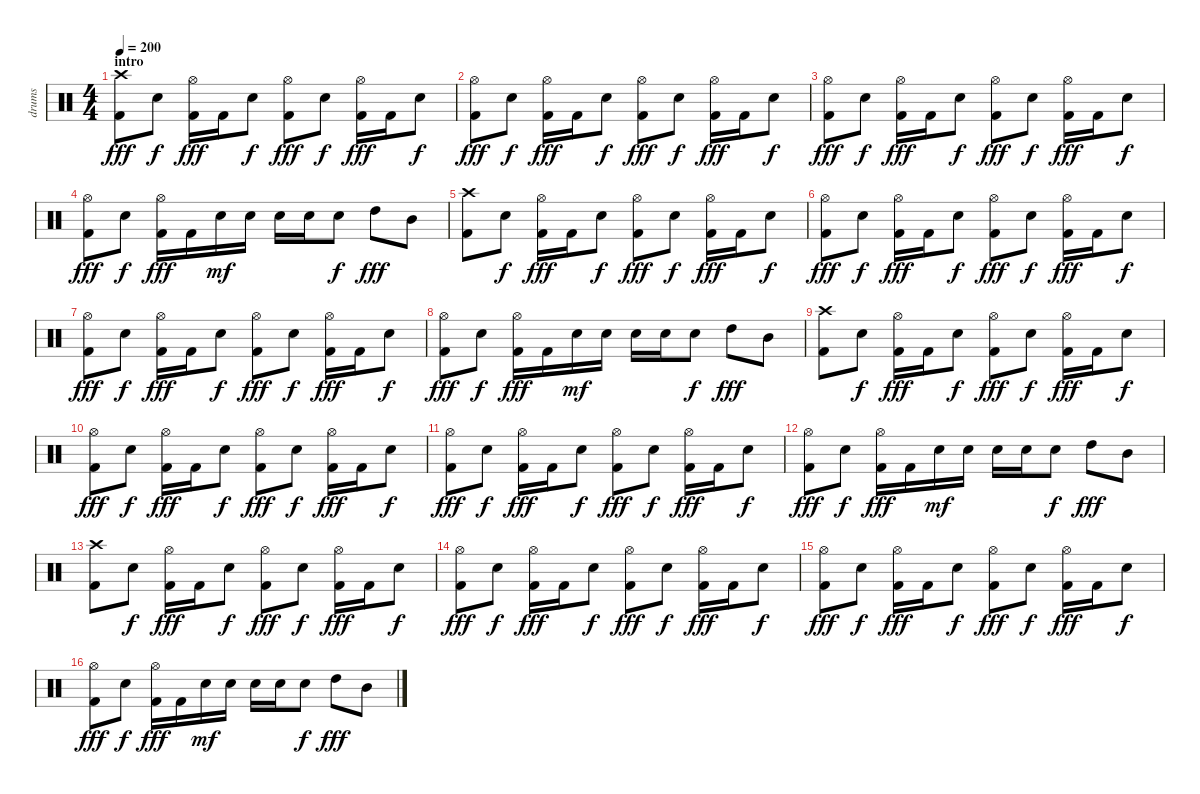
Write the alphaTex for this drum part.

\track ("drums" "drums") {instrument percussion}
\staff {score}
\articulation defaults
\ts (4 4)
\section ("" "intro")
\tempo 200
\clef neutral
\ks c
("Crash high (hit)" "Kick (hit) 2").8{dy fff} "Snare (hit) 2".8{dy f} ("Hi-Hat (open)" "Kick (hit) 2").16{dy fff} "Kick (hit) 2".16 "Snare (hit) 2".8{dy f} ("Hi-Hat (open)" "Kick (hit) 2").8{dy fff} "Snare (hit) 2".8{dy f} ("Hi-Hat (open)" "Kick (hit) 2").16{dy fff} "Kick (hit) 2".16 "Snare (hit) 2".8{dy f} |
("Hi-Hat (open)" "Kick (hit) 2").8{dy fff} "Snare (hit) 2".8{dy f} ("Hi-Hat (open)" "Kick (hit) 2").16{dy fff} "Kick (hit) 2".16 "Snare (hit) 2".8{dy f} ("Hi-Hat (open)" "Kick (hit) 2").8{dy fff} "Snare (hit) 2".8{dy f} ("Hi-Hat (open)" "Kick (hit) 2").16{dy fff} "Kick (hit) 2".16 "Snare (hit) 2".8{dy f} |
("Hi-Hat (open)" "Kick (hit) 2").8{dy fff} "Snare (hit) 2".8{dy f} ("Hi-Hat (open)" "Kick (hit) 2").16{dy fff} "Kick (hit) 2".16 "Snare (hit) 2".8{dy f} ("Hi-Hat (open)" "Kick (hit) 2").8{dy fff} "Snare (hit) 2".8{dy f} ("Hi-Hat (open)" "Kick (hit) 2").16{dy fff} "Kick (hit) 2".16 "Snare (hit) 2".8{dy f} |
("Hi-Hat (open)" "Kick (hit) 2").8{dy fff} "Snare (hit) 2".8{dy f} ("Hi-Hat (open)" "Kick (hit) 2").16{dy fff} "Kick (hit) 2".16 "Snare (hit) 2".16{dy mf} "Snare (hit) 2".16 "Snare (hit) 2".16 "Snare (hit) 2".16 "Snare (hit) 2".8{dy f} "High Tom (hit)".8{dy fff} "Mid Tom (hit)".8 |
("Crash high (hit)" "Kick (hit) 2").8 "Snare (hit) 2".8{dy f} ("Hi-Hat (open)" "Kick (hit) 2").16{dy fff} "Kick (hit) 2".16 "Snare (hit) 2".8{dy f} ("Hi-Hat (open)" "Kick (hit) 2").8{dy fff} "Snare (hit) 2".8{dy f} ("Hi-Hat (open)" "Kick (hit) 2").16{dy fff} "Kick (hit) 2".16 "Snare (hit) 2".8{dy f} |
("Hi-Hat (open)" "Kick (hit) 2").8{dy fff} "Snare (hit) 2".8{dy f} ("Hi-Hat (open)" "Kick (hit) 2").16{dy fff} "Kick (hit) 2".16 "Snare (hit) 2".8{dy f} ("Hi-Hat (open)" "Kick (hit) 2").8{dy fff} "Snare (hit) 2".8{dy f} ("Hi-Hat (open)" "Kick (hit) 2").16{dy fff} "Kick (hit) 2".16 "Snare (hit) 2".8{dy f} |
("Hi-Hat (open)" "Kick (hit) 2").8{dy fff} "Snare (hit) 2".8{dy f} ("Hi-Hat (open)" "Kick (hit) 2").16{dy fff} "Kick (hit) 2".16 "Snare (hit) 2".8{dy f} ("Hi-Hat (open)" "Kick (hit) 2").8{dy fff} "Snare (hit) 2".8{dy f} ("Hi-Hat (open)" "Kick (hit) 2").16{dy fff} "Kick (hit) 2".16 "Snare (hit) 2".8{dy f} |
("Hi-Hat (open)" "Kick (hit) 2").8{dy fff} "Snare (hit) 2".8{dy f} ("Hi-Hat (open)" "Kick (hit) 2").16{dy fff} "Kick (hit) 2".16 "Snare (hit) 2".16{dy mf} "Snare (hit) 2".16 "Snare (hit) 2".16 "Snare (hit) 2".16 "Snare (hit) 2".8{dy f} "High Tom (hit)".8{dy fff} "Mid Tom (hit)".8 |
("Crash high (hit)" "Kick (hit) 2").8 "Snare (hit) 2".8{dy f} ("Hi-Hat (open)" "Kick (hit) 2").16{dy fff} "Kick (hit) 2".16 "Snare (hit) 2".8{dy f} ("Hi-Hat (open)" "Kick (hit) 2").8{dy fff} "Snare (hit) 2".8{dy f} ("Hi-Hat (open)" "Kick (hit) 2").16{dy fff} "Kick (hit) 2".16 "Snare (hit) 2".8{dy f} |
("Hi-Hat (open)" "Kick (hit) 2").8{dy fff} "Snare (hit) 2".8{dy f} ("Hi-Hat (open)" "Kick (hit) 2").16{dy fff} "Kick (hit) 2".16 "Snare (hit) 2".8{dy f} ("Hi-Hat (open)" "Kick (hit) 2").8{dy fff} "Snare (hit) 2".8{dy f} ("Hi-Hat (open)" "Kick (hit) 2").16{dy fff} "Kick (hit) 2".16 "Snare (hit) 2".8{dy f} |
("Hi-Hat (open)" "Kick (hit) 2").8{dy fff} "Snare (hit) 2".8{dy f} ("Hi-Hat (open)" "Kick (hit) 2").16{dy fff} "Kick (hit) 2".16 "Snare (hit) 2".8{dy f} ("Hi-Hat (open)" "Kick (hit) 2").8{dy fff} "Snare (hit) 2".8{dy f} ("Hi-Hat (open)" "Kick (hit) 2").16{dy fff} "Kick (hit) 2".16 "Snare (hit) 2".8{dy f} |
("Hi-Hat (open)" "Kick (hit) 2").8{dy fff} "Snare (hit) 2".8{dy f} ("Hi-Hat (open)" "Kick (hit) 2").16{dy fff} "Kick (hit) 2".16 "Snare (hit) 2".16{dy mf} "Snare (hit) 2".16 "Snare (hit) 2".16 "Snare (hit) 2".16 "Snare (hit) 2".8{dy f} "High Tom (hit)".8{dy fff} "Mid Tom (hit)".8 |
("Crash high (hit)" "Kick (hit) 2").8 "Snare (hit) 2".8{dy f} ("Hi-Hat (open)" "Kick (hit) 2").16{dy fff} "Kick (hit) 2".16 "Snare (hit) 2".8{dy f} ("Hi-Hat (open)" "Kick (hit) 2").8{dy fff} "Snare (hit) 2".8{dy f} ("Hi-Hat (open)" "Kick (hit) 2").16{dy fff} "Kick (hit) 2".16 "Snare (hit) 2".8{dy f} |
("Hi-Hat (open)" "Kick (hit) 2").8{dy fff} "Snare (hit) 2".8{dy f} ("Hi-Hat (open)" "Kick (hit) 2").16{dy fff} "Kick (hit) 2".16 "Snare (hit) 2".8{dy f} ("Hi-Hat (open)" "Kick (hit) 2").8{dy fff} "Snare (hit) 2".8{dy f} ("Hi-Hat (open)" "Kick (hit) 2").16{dy fff} "Kick (hit) 2".16 "Snare (hit) 2".8{dy f} |
("Hi-Hat (open)" "Kick (hit) 2").8{dy fff} "Snare (hit) 2".8{dy f} ("Hi-Hat (open)" "Kick (hit) 2").16{dy fff} "Kick (hit) 2".16 "Snare (hit) 2".8{dy f} ("Hi-Hat (open)" "Kick (hit) 2").8{dy fff} "Snare (hit) 2".8{dy f} ("Hi-Hat (open)" "Kick (hit) 2").16{dy fff} "Kick (hit) 2".16 "Snare (hit) 2".8{dy f} |
("Hi-Hat (open)" "Kick (hit) 2").8{dy fff} "Snare (hit) 2".8{dy f} ("Hi-Hat (open)" "Kick (hit) 2").16{dy fff} "Kick (hit) 2".16 "Snare (hit) 2".16{dy mf} "Snare (hit) 2".16 "Snare (hit) 2".16 "Snare (hit) 2".16 "Snare (hit) 2".8{dy f} "High Tom (hit)".8{dy fff} "Mid Tom (hit)".8
